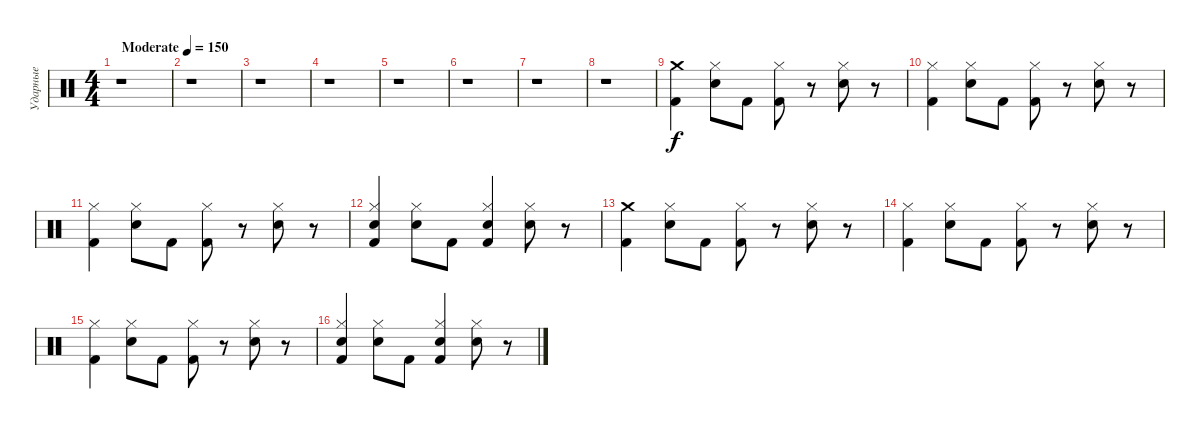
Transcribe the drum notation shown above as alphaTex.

\track ("Ударные" "Ударные") {instrument percussion}
\staff {score}
\articulation defaults
\ts (4 4)
\tempo (150 "Moderate")
\clef neutral
\ks c
r.1{dy f} |
r.1 |
r.1 |
r.1 |
r.1 |
r.1 |
r.1 |
r.1 |
("Crash medium (hit)" "Kick (hit) 2").4 ("Hi-Hat (closed)" "Snare (hit) 2").8 "Kick (hit) 2".8 ("Hi-Hat (closed)" "Kick (hit) 2").8 r.8 ("Hi-Hat (closed)" "Snare (hit) 2").8 r.8 |
("Hi-Hat (closed)" "Kick (hit) 2").4 ("Hi-Hat (closed)" "Snare (hit) 2").8 "Kick (hit) 2".8 ("Hi-Hat (closed)" "Kick (hit) 2").8 r.8 ("Hi-Hat (closed)" "Snare (hit) 2").8 r.8 |
("Hi-Hat (closed)" "Kick (hit) 2").4 ("Hi-Hat (closed)" "Snare (hit) 2").8 "Kick (hit) 2".8 ("Hi-Hat (closed)" "Kick (hit) 2").8 r.8 ("Hi-Hat (closed)" "Snare (hit) 2").8 r.8 |
("Snare (hit) 2" "Hi-Hat (closed)" "Kick (hit) 2").4 ("Hi-Hat (closed)" "Snare (hit) 2").8 "Kick (hit) 2".8 ("Snare (hit) 2" "Hi-Hat (closed)" "Kick (hit) 2").4 ("Hi-Hat (closed)" "Snare (hit) 2").8 r.8 |
("Crash medium (hit)" "Kick (hit) 2").4 ("Hi-Hat (closed)" "Snare (hit) 2").8 "Kick (hit) 2".8 ("Hi-Hat (closed)" "Kick (hit) 2").8 r.8 ("Hi-Hat (closed)" "Snare (hit) 2").8 r.8 |
("Hi-Hat (closed)" "Kick (hit) 2").4 ("Hi-Hat (closed)" "Snare (hit) 2").8 "Kick (hit) 2".8 ("Hi-Hat (closed)" "Kick (hit) 2").8 r.8 ("Hi-Hat (closed)" "Snare (hit) 2").8 r.8 |
("Hi-Hat (closed)" "Kick (hit) 2").4 ("Hi-Hat (closed)" "Snare (hit) 2").8 "Kick (hit) 2".8 ("Hi-Hat (closed)" "Kick (hit) 2").8 r.8 ("Hi-Hat (closed)" "Snare (hit) 2").8 r.8 |
("Snare (hit) 2" "Hi-Hat (closed)" "Kick (hit) 2").4 ("Hi-Hat (closed)" "Snare (hit) 2").8 "Kick (hit) 2".8 ("Snare (hit) 2" "Hi-Hat (closed)" "Kick (hit) 2").4 ("Hi-Hat (closed)" "Snare (hit) 2").8 r.8
